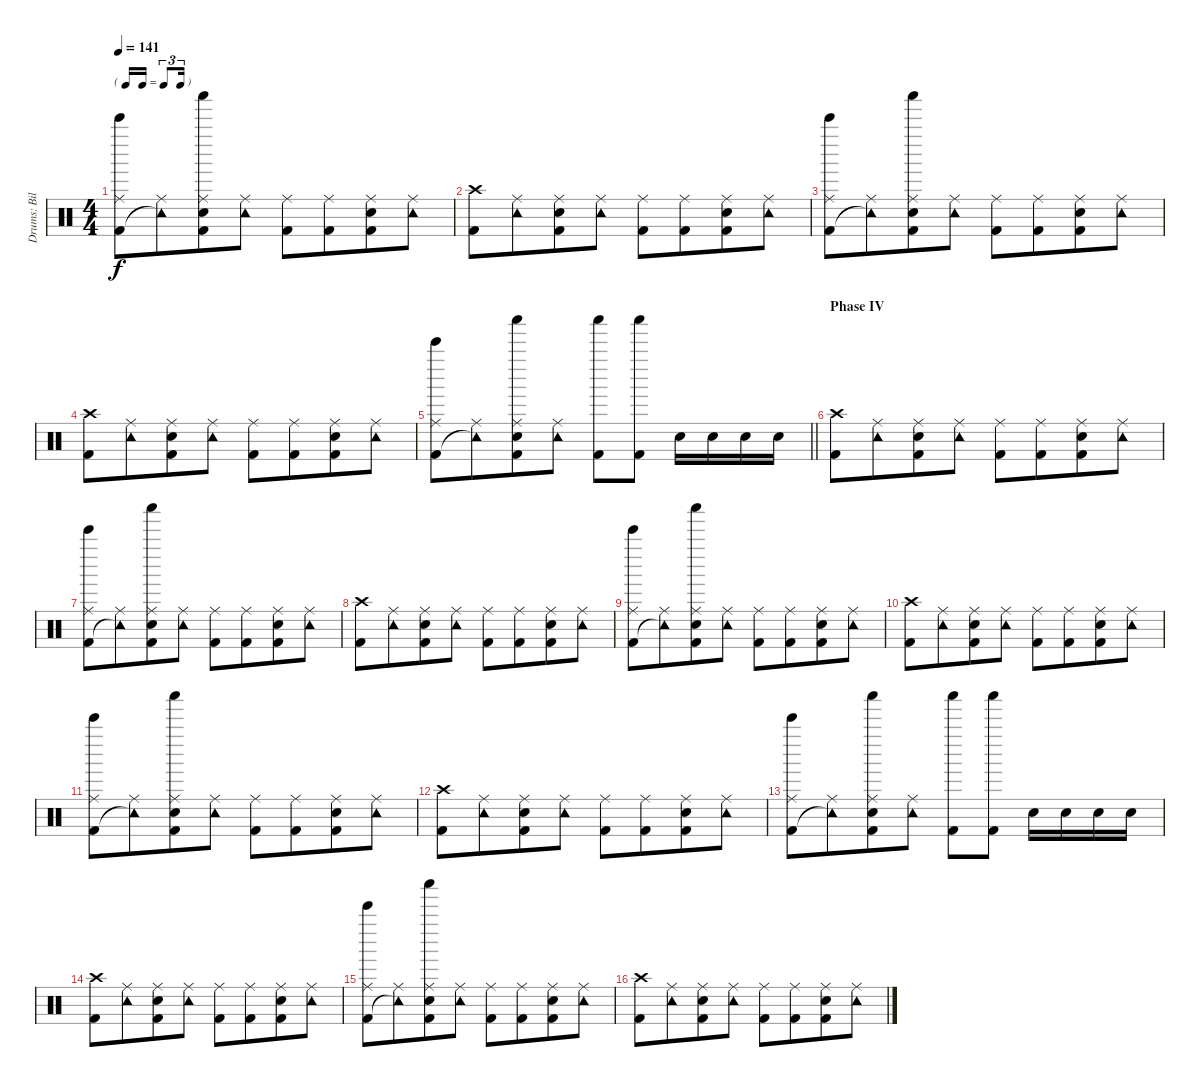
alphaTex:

\track ("Drums: Bill" "Drums: Bil") {instrument percussion}
\staff {score}
\articulation defaults
\ts (4 4)
\tf triplet16th
\tempo 141
\clef neutral
\ks c
("Ride (middle)" "Kick (hit) 2" "Bell Tree (hit)").8{dy f} ("Ride (middle)" "Tambourine (hit)"{t}).8{beam merge} ("Ride (middle)" "Electric Snare (hit)" "Kick (hit) 2" "Shaker (hit)").8 ("Ride (middle)" "Tambourine (hit)").8 ("Ride (middle)" "Kick (hit) 2").8 ("Ride (middle)" "Kick (hit) 2").8{beam merge} ("Ride (middle)" "Electric Snare (hit)" "Kick (hit) 2").8 ("Ride (middle)" "Tambourine (hit)").8 |
("Crash high (hit)" "Kick (hit) 2").8 ("Ride (middle)" "Tambourine (hit)").8{beam merge} ("Ride (middle)" "Electric Snare (hit)" "Kick (hit) 2").8 ("Ride (middle)" "Tambourine (hit)").8 ("Ride (middle)" "Kick (hit) 2").8 ("Ride (middle)" "Kick (hit) 2").8{beam merge} ("Ride (middle)" "Electric Snare (hit)" "Kick (hit) 2").8 ("Ride (middle)" "Tambourine (hit)").8 |
("Ride (middle)" "Kick (hit) 2" "Bell Tree (hit)").8 ("Ride (middle)" "Tambourine (hit)"{t}).8{beam merge} ("Ride (middle)" "Electric Snare (hit)" "Kick (hit) 2" "Shaker (hit)").8 ("Ride (middle)" "Tambourine (hit)").8 ("Ride (middle)" "Kick (hit) 2").8 ("Ride (middle)" "Kick (hit) 2").8{beam merge} ("Ride (middle)" "Electric Snare (hit)" "Kick (hit) 2").8 ("Ride (middle)" "Tambourine (hit)").8 |
("Crash high (hit)" "Kick (hit) 2").8 ("Ride (middle)" "Tambourine (hit)").8{beam merge} ("Ride (middle)" "Electric Snare (hit)" "Kick (hit) 2").8 ("Ride (middle)" "Tambourine (hit)").8 ("Ride (middle)" "Kick (hit) 2").8 ("Ride (middle)" "Kick (hit) 2").8{beam merge} ("Ride (middle)" "Electric Snare (hit)" "Kick (hit) 2").8 ("Ride (middle)" "Tambourine (hit)").8 |
\barLineRight lightlight
("Ride (middle)" "Kick (hit) 2" "Bell Tree (hit)").8 ("Ride (middle)" "Tambourine (hit)"{t}).8{beam merge} ("Ride (middle)" "Electric Snare (hit)" "Kick (hit) 2" "Shaker (hit)").8 ("Ride (middle)" "Tambourine (hit)").8 ("Shaker (hit)" "Kick (hit) 2").8 ("Shaker (hit)" "Kick (hit) 2").8 "Electric Snare (hit)".16 "Electric Snare (hit)".16 "Electric Snare (hit)".16 "Electric Snare (hit)".16 |
\section ("" "Phase IV")
("Crash high (hit)" "Kick (hit) 2").8 ("Ride (middle)" "Tambourine (hit)").8{beam merge} ("Ride (middle)" "Electric Snare (hit)" "Kick (hit) 2").8 ("Ride (middle)" "Tambourine (hit)").8 ("Ride (middle)" "Kick (hit) 2").8 ("Ride (middle)" "Kick (hit) 2").8{beam merge} ("Ride (middle)" "Electric Snare (hit)" "Kick (hit) 2").8 ("Ride (middle)" "Tambourine (hit)").8 |
("Ride (middle)" "Kick (hit) 2" "Bell Tree (hit)").8 ("Ride (middle)" "Tambourine (hit)"{t}).8{beam merge} ("Ride (middle)" "Electric Snare (hit)" "Kick (hit) 2" "Shaker (hit)").8 ("Ride (middle)" "Tambourine (hit)").8 ("Ride (middle)" "Kick (hit) 2").8 ("Ride (middle)" "Kick (hit) 2").8{beam merge} ("Ride (middle)" "Electric Snare (hit)" "Kick (hit) 2").8 ("Ride (middle)" "Tambourine (hit)").8 |
("Crash high (hit)" "Kick (hit) 2").8 ("Ride (middle)" "Tambourine (hit)").8{beam merge} ("Ride (middle)" "Electric Snare (hit)" "Kick (hit) 2").8 ("Ride (middle)" "Tambourine (hit)").8 ("Ride (middle)" "Kick (hit) 2").8 ("Ride (middle)" "Kick (hit) 2").8{beam merge} ("Ride (middle)" "Electric Snare (hit)" "Kick (hit) 2").8 ("Ride (middle)" "Tambourine (hit)").8 |
("Ride (middle)" "Kick (hit) 2" "Bell Tree (hit)").8 ("Ride (middle)" "Tambourine (hit)"{t}).8{beam merge} ("Ride (middle)" "Electric Snare (hit)" "Kick (hit) 2" "Shaker (hit)").8 ("Ride (middle)" "Tambourine (hit)").8 ("Ride (middle)" "Kick (hit) 2").8 ("Ride (middle)" "Kick (hit) 2").8{beam merge} ("Ride (middle)" "Electric Snare (hit)" "Kick (hit) 2").8 ("Ride (middle)" "Tambourine (hit)").8 |
("Crash high (hit)" "Kick (hit) 2").8 ("Ride (middle)" "Tambourine (hit)").8{beam merge} ("Ride (middle)" "Electric Snare (hit)" "Kick (hit) 2").8 ("Ride (middle)" "Tambourine (hit)").8 ("Ride (middle)" "Kick (hit) 2").8 ("Ride (middle)" "Kick (hit) 2").8{beam merge} ("Ride (middle)" "Electric Snare (hit)" "Kick (hit) 2").8 ("Ride (middle)" "Tambourine (hit)").8 |
("Ride (middle)" "Kick (hit) 2" "Bell Tree (hit)").8 ("Ride (middle)" "Tambourine (hit)"{t}).8{beam merge} ("Ride (middle)" "Electric Snare (hit)" "Kick (hit) 2" "Shaker (hit)").8 ("Ride (middle)" "Tambourine (hit)").8 ("Ride (middle)" "Kick (hit) 2").8 ("Ride (middle)" "Kick (hit) 2").8{beam merge} ("Ride (middle)" "Electric Snare (hit)" "Kick (hit) 2").8 ("Ride (middle)" "Tambourine (hit)").8 |
("Crash high (hit)" "Kick (hit) 2").8 ("Ride (middle)" "Tambourine (hit)").8{beam merge} ("Ride (middle)" "Electric Snare (hit)" "Kick (hit) 2").8 ("Ride (middle)" "Tambourine (hit)").8 ("Ride (middle)" "Kick (hit) 2").8 ("Ride (middle)" "Kick (hit) 2").8{beam merge} ("Ride (middle)" "Electric Snare (hit)" "Kick (hit) 2").8 ("Ride (middle)" "Tambourine (hit)").8 |
("Ride (middle)" "Kick (hit) 2" "Bell Tree (hit)").8 ("Ride (middle)" "Tambourine (hit)"{t}).8{beam merge} ("Ride (middle)" "Electric Snare (hit)" "Kick (hit) 2" "Shaker (hit)").8 ("Ride (middle)" "Tambourine (hit)").8 ("Shaker (hit)" "Kick (hit) 2").8 ("Shaker (hit)" "Kick (hit) 2").8 "Electric Snare (hit)".16 "Electric Snare (hit)".16 "Electric Snare (hit)".16 "Electric Snare (hit)".16 |
("Crash high (hit)" "Kick (hit) 2").8 ("Ride (middle)" "Tambourine (hit)").8{beam merge} ("Ride (middle)" "Electric Snare (hit)" "Kick (hit) 2").8 ("Ride (middle)" "Tambourine (hit)").8 ("Ride (middle)" "Kick (hit) 2").8 ("Ride (middle)" "Kick (hit) 2").8{beam merge} ("Ride (middle)" "Electric Snare (hit)" "Kick (hit) 2").8 ("Ride (middle)" "Tambourine (hit)").8 |
("Ride (middle)" "Kick (hit) 2" "Bell Tree (hit)").8 ("Ride (middle)" "Tambourine (hit)"{t}).8{beam merge} ("Ride (middle)" "Electric Snare (hit)" "Kick (hit) 2" "Shaker (hit)").8 ("Ride (middle)" "Tambourine (hit)").8 ("Ride (middle)" "Kick (hit) 2").8 ("Ride (middle)" "Kick (hit) 2").8{beam merge} ("Ride (middle)" "Electric Snare (hit)" "Kick (hit) 2").8 ("Ride (middle)" "Tambourine (hit)").8 |
("Crash high (hit)" "Kick (hit) 2").8 ("Ride (middle)" "Tambourine (hit)").8{beam merge} ("Ride (middle)" "Electric Snare (hit)" "Kick (hit) 2").8 ("Ride (middle)" "Tambourine (hit)").8 ("Ride (middle)" "Kick (hit) 2").8 ("Ride (middle)" "Kick (hit) 2").8{beam merge} ("Ride (middle)" "Electric Snare (hit)" "Kick (hit) 2").8 ("Ride (middle)" "Tambourine (hit)").8
